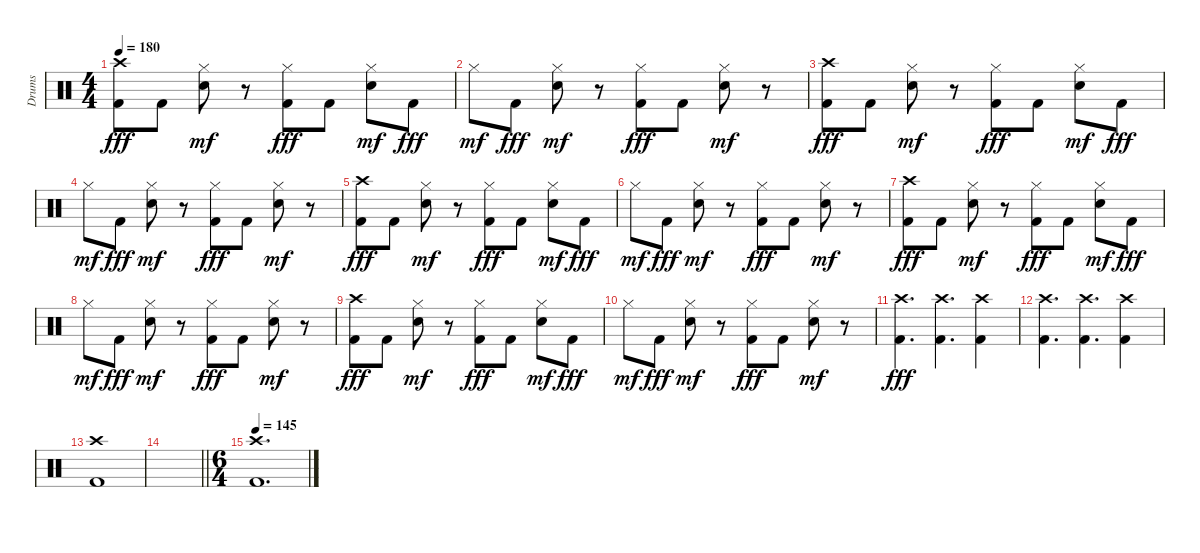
\track ("Drums" "Drums") {instrument percussion}
\staff {score}
\articulation defaults
\ts (4 4)
\tempo 180
\clef neutral
\ks c
("Crash high (hit)" "Kick (hit) 2").8{dy fff} "Kick (hit) 2".8 ("Hi-Hat (closed)" "Electric Snare (hit)").8{dy mf} r.8 ("Hi-Hat (closed)" "Kick (hit) 2").8{dy fff} "Kick (hit) 2".8 ("Hi-Hat (closed)" "Electric Snare (hit)").8{dy mf} "Kick (hit) 2".8{dy fff} |
"Hi-Hat (closed)".8{dy mf} "Kick (hit) 2".8{dy fff} ("Hi-Hat (closed)" "Electric Snare (hit)").8{dy mf} r.8 ("Hi-Hat (closed)" "Kick (hit) 2").8{dy fff} "Kick (hit) 2".8 ("Hi-Hat (closed)" "Electric Snare (hit)").8{dy mf} r.8 |
("Crash high (hit)" "Kick (hit) 2").8{dy fff} "Kick (hit) 2".8 ("Hi-Hat (closed)" "Electric Snare (hit)").8{dy mf} r.8 ("Hi-Hat (closed)" "Kick (hit) 2").8{dy fff} "Kick (hit) 2".8 ("Hi-Hat (closed)" "Electric Snare (hit)").8{dy mf} "Kick (hit) 2".8{dy fff} |
"Hi-Hat (closed)".8{dy mf} "Kick (hit) 2".8{dy fff} ("Hi-Hat (closed)" "Electric Snare (hit)").8{dy mf} r.8 ("Hi-Hat (closed)" "Kick (hit) 2").8{dy fff} "Kick (hit) 2".8 ("Hi-Hat (closed)" "Electric Snare (hit)").8{dy mf} r.8 |
("Crash high (hit)" "Kick (hit) 2").8{dy fff} "Kick (hit) 2".8 ("Hi-Hat (closed)" "Electric Snare (hit)").8{dy mf} r.8 ("Hi-Hat (closed)" "Kick (hit) 2").8{dy fff} "Kick (hit) 2".8 ("Hi-Hat (closed)" "Electric Snare (hit)").8{dy mf} "Kick (hit) 2".8{dy fff} |
"Hi-Hat (closed)".8{dy mf} "Kick (hit) 2".8{dy fff} ("Hi-Hat (closed)" "Electric Snare (hit)").8{dy mf} r.8 ("Hi-Hat (closed)" "Kick (hit) 2").8{dy fff} "Kick (hit) 2".8 ("Hi-Hat (closed)" "Electric Snare (hit)").8{dy mf} r.8 |
("Crash high (hit)" "Kick (hit) 2").8{dy fff} "Kick (hit) 2".8 ("Hi-Hat (closed)" "Electric Snare (hit)").8{dy mf} r.8 ("Hi-Hat (closed)" "Kick (hit) 2").8{dy fff} "Kick (hit) 2".8 ("Hi-Hat (closed)" "Electric Snare (hit)").8{dy mf} "Kick (hit) 2".8{dy fff} |
"Hi-Hat (closed)".8{dy mf} "Kick (hit) 2".8{dy fff} ("Hi-Hat (closed)" "Electric Snare (hit)").8{dy mf} r.8 ("Hi-Hat (closed)" "Kick (hit) 2").8{dy fff} "Kick (hit) 2".8 ("Hi-Hat (closed)" "Electric Snare (hit)").8{dy mf} r.8 |
("Crash high (hit)" "Kick (hit) 2").8{dy fff} "Kick (hit) 2".8 ("Hi-Hat (closed)" "Electric Snare (hit)").8{dy mf} r.8 ("Hi-Hat (closed)" "Kick (hit) 2").8{dy fff} "Kick (hit) 2".8 ("Hi-Hat (closed)" "Electric Snare (hit)").8{dy mf} "Kick (hit) 2".8{dy fff} |
"Hi-Hat (closed)".8{dy mf} "Kick (hit) 2".8{dy fff} ("Hi-Hat (closed)" "Electric Snare (hit)").8{dy mf} r.8 ("Hi-Hat (closed)" "Kick (hit) 2").8{dy fff} "Kick (hit) 2".8 ("Hi-Hat (closed)" "Electric Snare (hit)").8{dy mf} r.8 |
("Crash high (hit)" "Kick (hit) 2").4{d dy fff} ("Crash high (hit)" "Kick (hit) 2").4{d} ("Crash high (hit)" "Kick (hit) 2").4 |
("Crash high (hit)" "Kick (hit) 2").4{d} ("Crash high (hit)" "Kick (hit) 2").4{d} ("Crash high (hit)" "Kick (hit) 2").4 |
("Crash high (hit)" "Kick (hit) 2").1 |
\barLineRight lightlight
|
\ts (6 4)
\tempo 145
("Crash high (hit)" "Kick (hit) 2").1{d}
